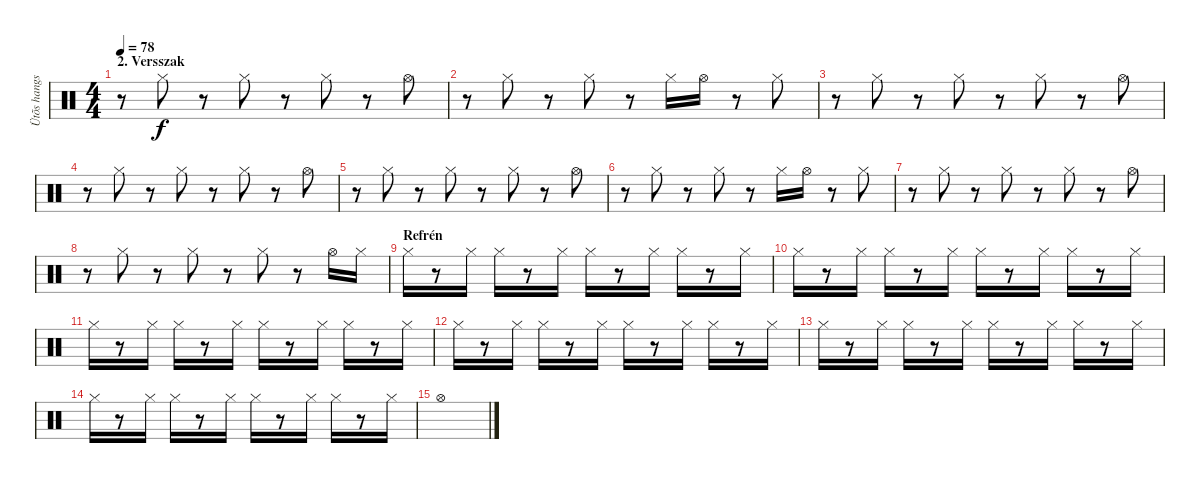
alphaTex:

\track ("Ütõs hangszer" "Ütõs hangs") {instrument percussion}
\staff {score}
\articulation defaults
\ts (4 4)
\section ("" "2. Versszak")
\tempo 78
\clef neutral
\ks c
r.8{dy f} "Hi-Hat (closed)".8 r.8 "Hi-Hat (closed)".8 r.8 "Hi-Hat (closed)".8 r.8 "Hi-Hat (open)".8 |
r.8 "Hi-Hat (closed)".8 r.8 "Hi-Hat (closed)".8 r.8 "Hi-Hat (closed)".16 "Hi-Hat (open)".16 r.8 "Hi-Hat (closed)".8 |
r.8 "Hi-Hat (closed)".8 r.8 "Hi-Hat (closed)".8 r.8 "Hi-Hat (closed)".8 r.8 "Hi-Hat (open)".8 |
r.8 "Hi-Hat (closed)".8 r.8 "Hi-Hat (closed)".8 r.8 "Hi-Hat (closed)".8 r.8 "Hi-Hat (open)".8 |
r.8 "Hi-Hat (closed)".8 r.8 "Hi-Hat (closed)".8 r.8 "Hi-Hat (closed)".8 r.8 "Hi-Hat (open)".8 |
r.8 "Hi-Hat (closed)".8 r.8 "Hi-Hat (closed)".8 r.8 "Hi-Hat (closed)".16 "Hi-Hat (open)".16 r.8 "Hi-Hat (closed)".8 |
r.8 "Hi-Hat (closed)".8 r.8 "Hi-Hat (closed)".8 r.8 "Hi-Hat (closed)".8 r.8 "Hi-Hat (open)".8 |
r.8 "Hi-Hat (closed)".8 r.8 "Hi-Hat (closed)".8 r.8 "Hi-Hat (closed)".8 r.8 "Hi-Hat (open)".16 "Hi-Hat (closed)".16 |
\section ("" "Refrén")
"Hi-Hat (closed)".16 r.8 "Hi-Hat (closed)".16 "Hi-Hat (closed)".16 r.8 "Hi-Hat (closed)".16 "Hi-Hat (closed)".16 r.8 "Hi-Hat (closed)".16 "Hi-Hat (closed)".16 r.8 "Hi-Hat (closed)".16 |
"Hi-Hat (closed)".16 r.8 "Hi-Hat (closed)".16 "Hi-Hat (closed)".16 r.8 "Hi-Hat (closed)".16 "Hi-Hat (closed)".16 r.8 "Hi-Hat (closed)".16 "Hi-Hat (closed)".16 r.8 "Hi-Hat (closed)".16 |
"Hi-Hat (closed)".16 r.8 "Hi-Hat (closed)".16 "Hi-Hat (closed)".16 r.8 "Hi-Hat (closed)".16 "Hi-Hat (closed)".16 r.8 "Hi-Hat (closed)".16 "Hi-Hat (closed)".16 r.8 "Hi-Hat (closed)".16 |
"Hi-Hat (closed)".16 r.8 "Hi-Hat (closed)".16 "Hi-Hat (closed)".16 r.8 "Hi-Hat (closed)".16 "Hi-Hat (closed)".16 r.8 "Hi-Hat (closed)".16 "Hi-Hat (closed)".16 r.8 "Hi-Hat (closed)".16 |
"Hi-Hat (closed)".16 r.8 "Hi-Hat (closed)".16 "Hi-Hat (closed)".16 r.8 "Hi-Hat (closed)".16 "Hi-Hat (closed)".16 r.8 "Hi-Hat (closed)".16 "Hi-Hat (closed)".16 r.8 "Hi-Hat (closed)".16 |
"Hi-Hat (closed)".16 r.8 "Hi-Hat (closed)".16 "Hi-Hat (closed)".16 r.8 "Hi-Hat (closed)".16 "Hi-Hat (closed)".16 r.8 "Hi-Hat (closed)".16 "Hi-Hat (closed)".16 r.8 "Hi-Hat (closed)".16 |
"Hi-Hat (open)".1
